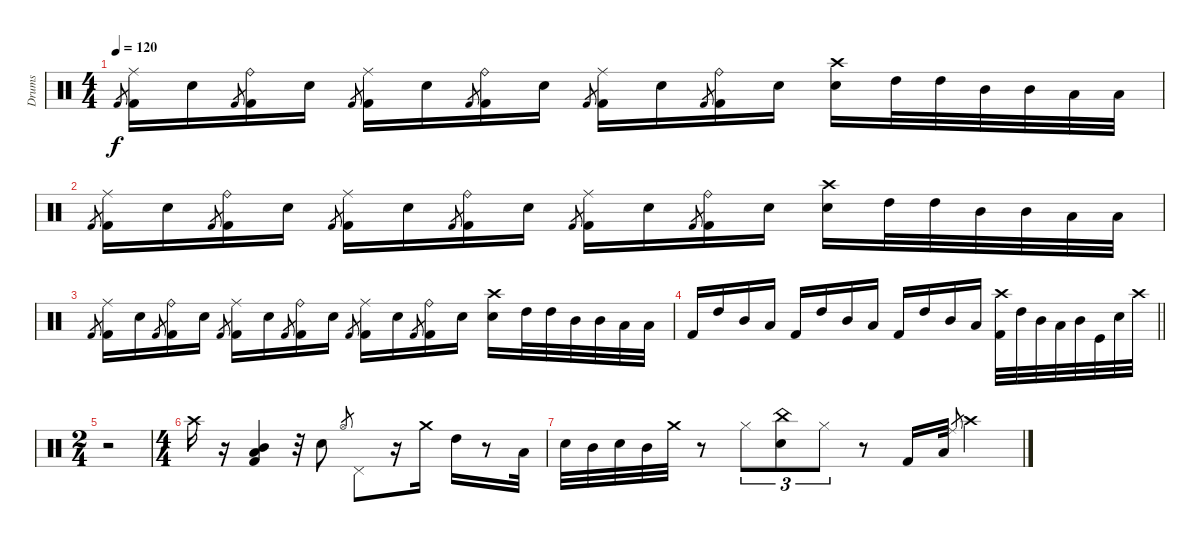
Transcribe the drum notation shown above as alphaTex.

\track ("Drums" "Drums") {instrument percussion}
\staff {score}
\articulation defaults
\ts (4 4)
\tempo 120
\clef neutral
\ks c "Kick (hit) 2".8{gr dy f}
("Ride (middle)" "Kick (hit) 2").16 "Snare (hit) 2".16 "Kick (hit) 2".8{gr} ("Ride (bell)" "Kick (hit) 2").16 "Snare (hit) 2".16 "Kick (hit) 2".8{gr} ("Ride (middle)" "Kick (hit) 2").16 "Snare (hit) 2".16 "Kick (hit) 2".8{gr} ("Ride (bell)" "Kick (hit) 2").16 "Snare (hit) 2".16 "Kick (hit) 2".8{gr} ("Ride (middle)" "Kick (hit) 2").16 "Snare (hit) 2".16 "Kick (hit) 2".8{gr} ("Ride (bell)" "Kick (hit) 2").16 "Snare (hit) 2".16 ("Crash high (hit)" "Snare (hit) 2").16 "High Tom (hit)".32 "High Tom (hit)".32 "Mid Tom (hit)".32 "Mid Tom (hit)".32 "Low Tom (hit)".32 "Low Tom (hit)".32 |
"Kick (hit) 2".8{gr} ("Ride (middle)" "Kick (hit) 2").16 "Snare (hit) 2".16 "Kick (hit) 2".8{gr} ("Ride (bell)" "Kick (hit) 2").16 "Snare (hit) 2".16 "Kick (hit) 2".8{gr} ("Ride (middle)" "Kick (hit) 2").16 "Snare (hit) 2".16 "Kick (hit) 2".8{gr} ("Ride (bell)" "Kick (hit) 2").16 "Snare (hit) 2".16 "Kick (hit) 2".8{gr} ("Ride (middle)" "Kick (hit) 2").16 "Snare (hit) 2".16 "Kick (hit) 2".8{gr} ("Ride (bell)" "Kick (hit) 2").16 "Snare (hit) 2".16 ("Crash high (hit)" "Snare (hit) 2").16 "High Tom (hit)".32 "High Tom (hit)".32 "Mid Tom (hit)".32 "Mid Tom (hit)".32 "Low Tom (hit)".32 "Low Tom (hit)".32 |
"Kick (hit) 2".8{gr} ("Ride (middle)" "Kick (hit) 2").16 "Snare (hit) 2".16 "Kick (hit) 2".8{gr} ("Ride (bell)" "Kick (hit) 2").16 "Snare (hit) 2".16 "Kick (hit) 2".8{gr} ("Ride (middle)" "Kick (hit) 2").16 "Snare (hit) 2".16 "Kick (hit) 2".8{gr} ("Ride (bell)" "Kick (hit) 2").16 "Snare (hit) 2".16 "Kick (hit) 2".8{gr} ("Ride (middle)" "Kick (hit) 2").16 "Snare (hit) 2".16 "Kick (hit) 2".8{gr} ("Ride (bell)" "Kick (hit) 2").16 "Snare (hit) 2".16 ("Crash high (hit)" "Snare (hit) 2").16 "High Tom (hit)".32 "High Tom (hit)".32 "Mid Tom (hit)".32 "Mid Tom (hit)".32 "Low Tom (hit)".32 "Low Tom (hit)".32 |
\barLineRight lightlight "Kick (hit) 2".16 "High Tom (hit)".16 "Mid Tom (hit)".16 "Low Tom (hit)".16 "Kick (hit) 2".16 "High Tom (hit)".16 "Mid Tom (hit)".16 "Low Tom (hit)".16 "Kick (hit) 2".16 "High Tom (hit)".16 "Mid Tom (hit)".16 "Low Tom (hit)".16
("Crash high (hit)" "Kick (hit) 2").32 "High Tom (hit)".32 "Mid Tom (hit)".32 "Low Tom (hit)".32 "Mid Tom (hit)".32 "Kick (hit)".32 "Snare (hit) 2".32 "Crash high (hit)".32 |
\ts (2 4)
r.2 |
\ts (4 4)
"Crash high (hit)".16 r.16 ("Mid Tom (hit)" "Low Tom (hit)" "Kick (hit) 2").4 r.32 "Snare (hit) 2".8 "Hi-Hat (open)".8{gr} "Pedal Hi-Hat (hit)".8 r.16 "Crash medium (hit)".16 "High Tom (hit)".16 r.8 "Low Tom (hit)".32 |
"Snare (hit) 2".32 "Mid Tom (hit)".32 "Snare (hit) 2".32 "Mid Tom (hit)".32 "Crash medium (hit)".32 r.8 "Hi-Hat (closed)".8{tu (3 2)} ("China (hit)" "Snare (hit) 2").8{tu (3 2)} "Hi-Hat (closed)".8{tu (3 2)} r.8 "Kick (hit) 2".16 "Low Tom (hit)".32 "Ride (middle)".8{gr} "Crash high (hit)".4
